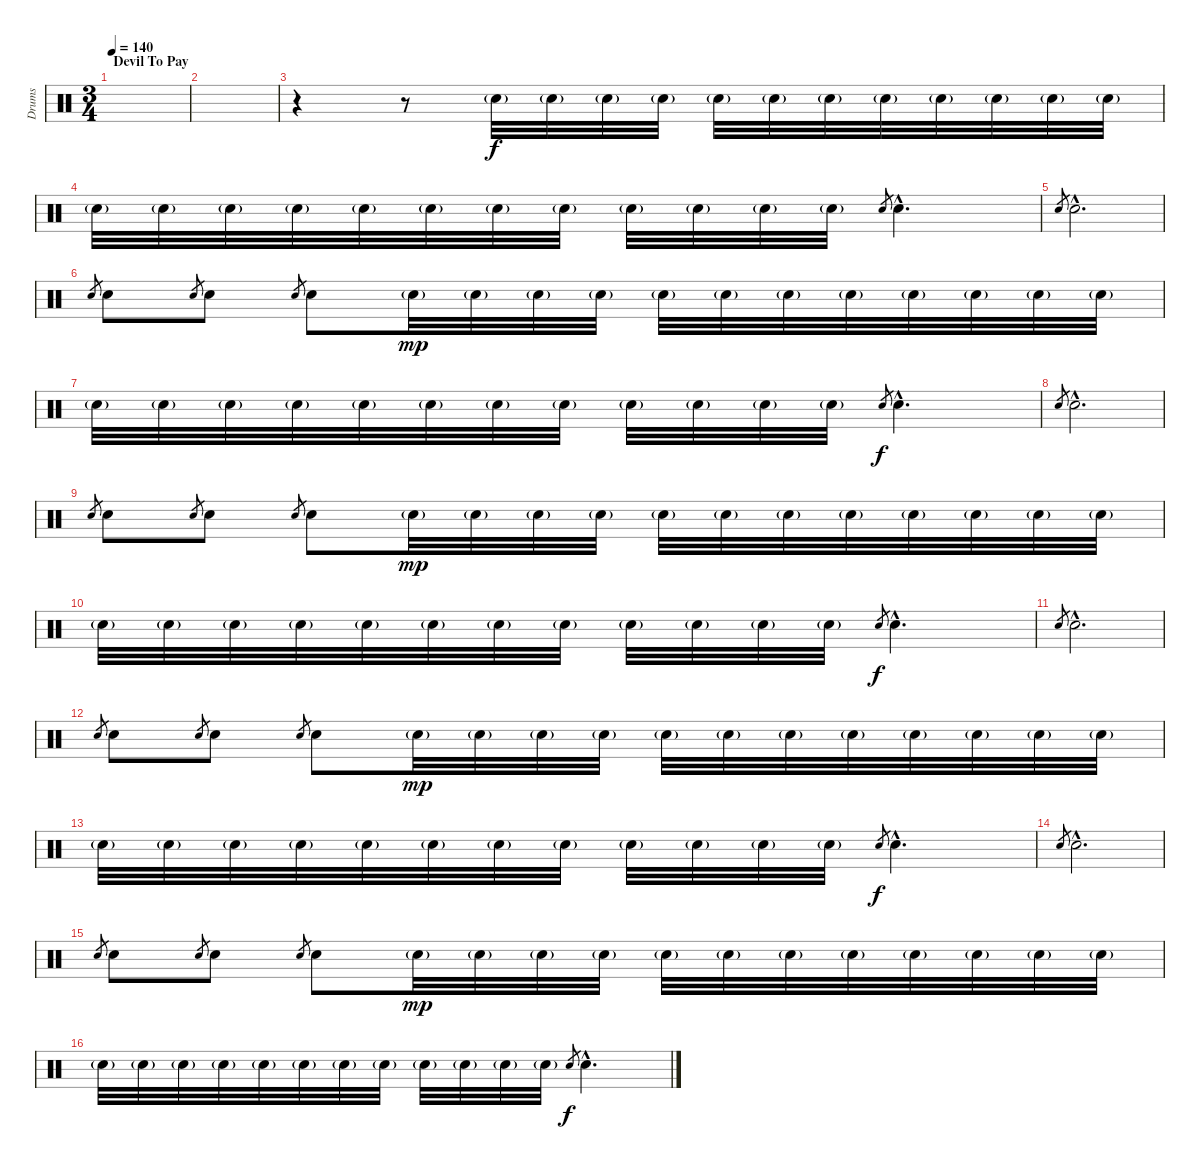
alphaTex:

\track ("Drums" "Drums") {instrument percussion}
\staff {score}
\articulation defaults
\ts (3 4)
\section ("" "Devil To Pay")
\tempo 140
\clef neutral
\ks c
|
|
r.4 r.8 "Snare (hit) 2"{g}.32 "Snare (hit) 2"{g}.32 "Snare (hit) 2"{g}.32 "Snare (hit) 2"{g}.32 "Snare (hit) 2"{g}.32 "Snare (hit) 2"{g}.32 "Snare (hit) 2"{g}.32 "Snare (hit) 2"{g}.32 "Snare (hit) 2"{g}.32 "Snare (hit) 2"{g}.32 "Snare (hit) 2"{g}.32 "Snare (hit) 2"{g}.32 |
"Snare (hit) 2"{g}.32 "Snare (hit) 2"{g}.32 "Snare (hit) 2"{g}.32 "Snare (hit) 2"{g}.32 "Snare (hit) 2"{g}.32 "Snare (hit) 2"{g}.32 "Snare (hit) 2"{g}.32 "Snare (hit) 2"{g}.32 "Snare (hit) 2"{g}.32 "Snare (hit) 2"{g}.32 "Snare (hit) 2"{g}.32 "Snare (hit) 2"{g}.32 "Snare (hit) 2".8{gr dy f} "Snare (hit) 2"{hac}.4{d} |
"Snare (hit) 2".8{gr} "Snare (hit) 2"{hac}.2{d} |
"Snare (hit) 2".8{gr} "Snare (hit) 2".8 "Snare (hit) 2".8{gr} "Snare (hit) 2".8 "Snare (hit) 2".8{gr} "Snare (hit) 2".8 "Snare (hit) 2"{g}.32{dy mp} "Snare (hit) 2"{g}.32 "Snare (hit) 2"{g}.32 "Snare (hit) 2"{g}.32 "Snare (hit) 2"{g}.32 "Snare (hit) 2"{g}.32 "Snare (hit) 2"{g}.32 "Snare (hit) 2"{g}.32 "Snare (hit) 2"{g}.32 "Snare (hit) 2"{g}.32 "Snare (hit) 2"{g}.32 "Snare (hit) 2"{g}.32 |
"Snare (hit) 2"{g}.32 "Snare (hit) 2"{g}.32 "Snare (hit) 2"{g}.32 "Snare (hit) 2"{g}.32 "Snare (hit) 2"{g}.32 "Snare (hit) 2"{g}.32 "Snare (hit) 2"{g}.32 "Snare (hit) 2"{g}.32 "Snare (hit) 2"{g}.32 "Snare (hit) 2"{g}.32 "Snare (hit) 2"{g}.32 "Snare (hit) 2"{g}.32 "Snare (hit) 2".8{gr dy f} "Snare (hit) 2"{hac}.4{d} |
"Snare (hit) 2".8{gr} "Snare (hit) 2"{hac}.2{d} |
"Snare (hit) 2".8{gr} "Snare (hit) 2".8 "Snare (hit) 2".8{gr} "Snare (hit) 2".8 "Snare (hit) 2".8{gr} "Snare (hit) 2".8 "Snare (hit) 2"{g}.32{dy mp} "Snare (hit) 2"{g}.32 "Snare (hit) 2"{g}.32 "Snare (hit) 2"{g}.32 "Snare (hit) 2"{g}.32 "Snare (hit) 2"{g}.32 "Snare (hit) 2"{g}.32 "Snare (hit) 2"{g}.32 "Snare (hit) 2"{g}.32 "Snare (hit) 2"{g}.32 "Snare (hit) 2"{g}.32 "Snare (hit) 2"{g}.32 |
"Snare (hit) 2"{g}.32 "Snare (hit) 2"{g}.32 "Snare (hit) 2"{g}.32 "Snare (hit) 2"{g}.32 "Snare (hit) 2"{g}.32 "Snare (hit) 2"{g}.32 "Snare (hit) 2"{g}.32 "Snare (hit) 2"{g}.32 "Snare (hit) 2"{g}.32 "Snare (hit) 2"{g}.32 "Snare (hit) 2"{g}.32 "Snare (hit) 2"{g}.32 "Snare (hit) 2".8{gr dy f} "Snare (hit) 2"{hac}.4{d} |
"Snare (hit) 2".8{gr} "Snare (hit) 2"{hac}.2{d} |
"Snare (hit) 2".8{gr} "Snare (hit) 2".8 "Snare (hit) 2".8{gr} "Snare (hit) 2".8 "Snare (hit) 2".8{gr} "Snare (hit) 2".8 "Snare (hit) 2"{g}.32{dy mp} "Snare (hit) 2"{g}.32 "Snare (hit) 2"{g}.32 "Snare (hit) 2"{g}.32 "Snare (hit) 2"{g}.32 "Snare (hit) 2"{g}.32 "Snare (hit) 2"{g}.32 "Snare (hit) 2"{g}.32 "Snare (hit) 2"{g}.32 "Snare (hit) 2"{g}.32 "Snare (hit) 2"{g}.32 "Snare (hit) 2"{g}.32 |
"Snare (hit) 2"{g}.32 "Snare (hit) 2"{g}.32 "Snare (hit) 2"{g}.32 "Snare (hit) 2"{g}.32 "Snare (hit) 2"{g}.32 "Snare (hit) 2"{g}.32 "Snare (hit) 2"{g}.32 "Snare (hit) 2"{g}.32 "Snare (hit) 2"{g}.32 "Snare (hit) 2"{g}.32 "Snare (hit) 2"{g}.32 "Snare (hit) 2"{g}.32 "Snare (hit) 2".8{gr dy f} "Snare (hit) 2"{hac}.4{d} |
"Snare (hit) 2".8{gr} "Snare (hit) 2"{hac}.2{d} |
"Snare (hit) 2".8{gr} "Snare (hit) 2".8 "Snare (hit) 2".8{gr} "Snare (hit) 2".8 "Snare (hit) 2".8{gr} "Snare (hit) 2".8 "Snare (hit) 2"{g}.32{dy mp} "Snare (hit) 2"{g}.32 "Snare (hit) 2"{g}.32 "Snare (hit) 2"{g}.32 "Snare (hit) 2"{g}.32 "Snare (hit) 2"{g}.32 "Snare (hit) 2"{g}.32 "Snare (hit) 2"{g}.32 "Snare (hit) 2"{g}.32 "Snare (hit) 2"{g}.32 "Snare (hit) 2"{g}.32 "Snare (hit) 2"{g}.32 |
"Snare (hit) 2"{g}.32 "Snare (hit) 2"{g}.32 "Snare (hit) 2"{g}.32 "Snare (hit) 2"{g}.32 "Snare (hit) 2"{g}.32 "Snare (hit) 2"{g}.32 "Snare (hit) 2"{g}.32 "Snare (hit) 2"{g}.32 "Snare (hit) 2"{g}.32 "Snare (hit) 2"{g}.32 "Snare (hit) 2"{g}.32 "Snare (hit) 2"{g}.32 "Snare (hit) 2".8{gr dy f} "Snare (hit) 2"{hac}.4{d}
